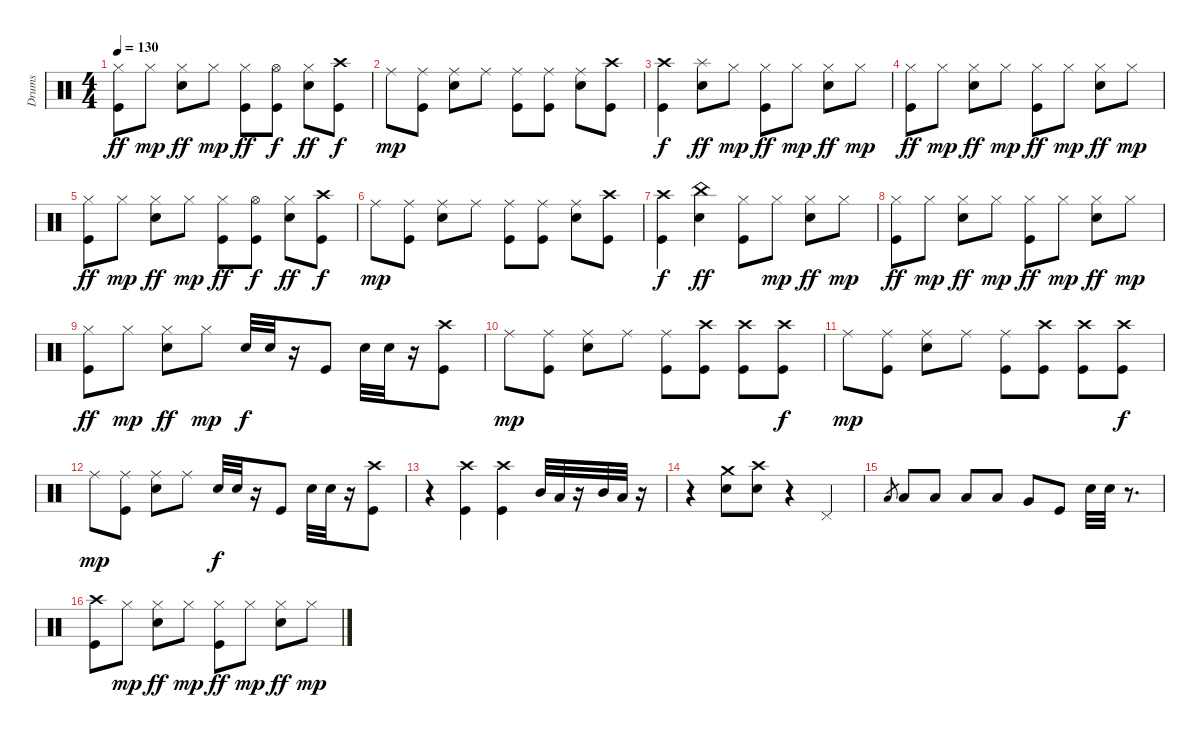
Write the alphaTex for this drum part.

\track ("Drums" "Drums") {instrument percussion}
\staff {score}
\articulation defaults
\ts (4 4)
\tempo 130
\clef neutral
\ks c
("Hi-Hat (closed)" "Kick (hit)").8{dy ff} "Hi-Hat (closed)".8{dy mp} ("Hi-Hat (closed)" "Snare (hit) 2").8{dy ff} "Hi-Hat (closed)".8{dy mp} ("Hi-Hat (closed)" "Kick (hit)").8{dy ff} ("Hi-Hat (open)" "Kick (hit)").8{dy f} ("Hi-Hat (closed)" "Snare (hit) 2").8{dy ff} ("Crash high (hit)" "Kick (hit)").8{dy f} |
"Ride (middle)".8{dy mp} ("Ride (middle)" "Kick (hit)").8 ("Ride (middle)" "Snare (hit) 2").8 "Ride (middle)".8 ("Ride (middle)" "Kick (hit)").8 ("Ride (middle)" "Kick (hit)").8 ("Ride (middle)" "Snare (hit) 2").8 ("Crash high (hit)" "Kick (hit)").8 |
("Crash high (hit)" "Kick (hit)").4{dy f} ("Splash (hit)" "Snare (hit) 2").8{dy ff} "Hi-Hat (closed)".8{dy mp} ("Hi-Hat (closed)" "Kick (hit)").8{dy ff} "Hi-Hat (closed)".8{dy mp} ("Hi-Hat (closed)" "Snare (hit) 2").8{dy ff} "Hi-Hat (closed)".8{dy mp} |
("Hi-Hat (closed)" "Kick (hit)").8{dy ff} "Hi-Hat (closed)".8{dy mp} ("Hi-Hat (closed)" "Snare (hit) 2").8{dy ff} "Hi-Hat (closed)".8{dy mp} ("Hi-Hat (closed)" "Kick (hit)").8{dy ff} "Hi-Hat (closed)".8{dy mp} ("Hi-Hat (closed)" "Snare (hit) 2").8{dy ff} "Hi-Hat (closed)".8{dy mp} |
("Hi-Hat (closed)" "Kick (hit)").8{dy ff} "Hi-Hat (closed)".8{dy mp} ("Hi-Hat (closed)" "Snare (hit) 2").8{dy ff} "Hi-Hat (closed)".8{dy mp} ("Hi-Hat (closed)" "Kick (hit)").8{dy ff} ("Hi-Hat (open)" "Kick (hit)").8{dy f} ("Hi-Hat (closed)" "Snare (hit) 2").8{dy ff} ("Crash high (hit)" "Kick (hit)").8{dy f} |
"Ride (middle)".8{dy mp} ("Ride (middle)" "Kick (hit)").8 ("Ride (middle)" "Snare (hit) 2").8 "Ride (middle)".8 ("Ride (middle)" "Kick (hit)").8 ("Ride (middle)" "Kick (hit)").8 ("Ride (middle)" "Snare (hit) 2").8 ("Crash high (hit)" "Kick (hit)").8 |
("Crash high (hit)" "Kick (hit)").4{dy f} ("China (hit)" "Snare (hit) 2").4{dy ff} ("Hi-Hat (closed)" "Kick (hit)").8 "Hi-Hat (closed)".8{dy mp} ("Hi-Hat (closed)" "Snare (hit) 2").8{dy ff} "Hi-Hat (closed)".8{dy mp} |
("Hi-Hat (closed)" "Kick (hit)").8{dy ff} "Hi-Hat (closed)".8{dy mp} ("Hi-Hat (closed)" "Snare (hit) 2").8{dy ff} "Hi-Hat (closed)".8{dy mp} ("Hi-Hat (closed)" "Kick (hit)").8{dy ff} "Hi-Hat (closed)".8{dy mp} ("Hi-Hat (closed)" "Snare (hit) 2").8{dy ff} "Hi-Hat (closed)".8{dy mp} |
("Hi-Hat (closed)" "Kick (hit)").8{dy ff} "Hi-Hat (closed)".8{dy mp} ("Hi-Hat (closed)" "Snare (hit) 2").8{dy ff} "Hi-Hat (closed)".8{dy mp} "Snare (hit) 2".32{dy f} "Snare (hit) 2".32 r.16 "Kick (hit)".8 "Snare (hit) 2".32 "Snare (hit) 2".32 r.16 ("Crash high (hit)" "Kick (hit)").8 |
"Ride (middle)".8{dy mp} ("Ride (middle)" "Kick (hit)").8 ("Ride (middle)" "Snare (hit) 2").8 "Ride (middle)".8 ("Ride (middle)" "Kick (hit)").8 ("Crash high (hit)" "Kick (hit)").8 ("Crash high (hit)" "Kick (hit)").8 ("Crash high (hit)" "Kick (hit)").8{dy f} |
"Ride (middle)".8{dy mp} ("Ride (middle)" "Kick (hit)").8 ("Ride (middle)" "Snare (hit) 2").8 "Ride (middle)".8 ("Ride (middle)" "Kick (hit)").8 ("Crash high (hit)" "Kick (hit)").8 ("Crash high (hit)" "Kick (hit)").8 ("Crash high (hit)" "Kick (hit)").8{dy f} |
"Ride (middle)".8{dy mp} ("Ride (middle)" "Kick (hit)").8 ("Ride (middle)" "Snare (hit) 2").8 "Ride (middle)".8 "Snare (hit) 2".32{dy f} "Snare (hit) 2".32 r.16 "Kick (hit)".8 "Snare (hit) 2".32 "Snare (hit) 2".32 r.16 ("Crash high (hit)" "Kick (hit)").8 |
r.4 ("Crash high (hit)" "Kick (hit)").4 ("Crash high (hit)" "Kick (hit)").4 "Mid Tom (hit)".32 "Low Tom (hit)".32 r.16 "Mid Tom (hit)".32 "Low Tom (hit)".32 r.16 |
r.4 ("Crash medium (hit)" "Snare (hit) 2").8 ("Crash high (hit)" "Snare (hit) 2").8 r.4 "Pedal Hi-Hat (hit)".4 |
"Low Tom (hit)".8{gr} "Low Tom (hit)".8 "Low Tom (hit)".8 "Low Tom (hit)".8 "Low Tom (hit)".8 "Very Low Tom (hit)".8 "Kick (hit)".8 "Snare (hit) 2".32 "Snare (hit) 2".32 r.8{d} |
("Crash high (hit)" "Kick (hit)").8 "Hi-Hat (closed)".8{dy mp} ("Hi-Hat (closed)" "Snare (hit) 2").8{dy ff} "Hi-Hat (closed)".8{dy mp} ("Hi-Hat (closed)" "Kick (hit)").8{dy ff} "Hi-Hat (closed)".8{dy mp} ("Hi-Hat (closed)" "Snare (hit) 2").8{dy ff} "Hi-Hat (closed)".8{dy mp}
